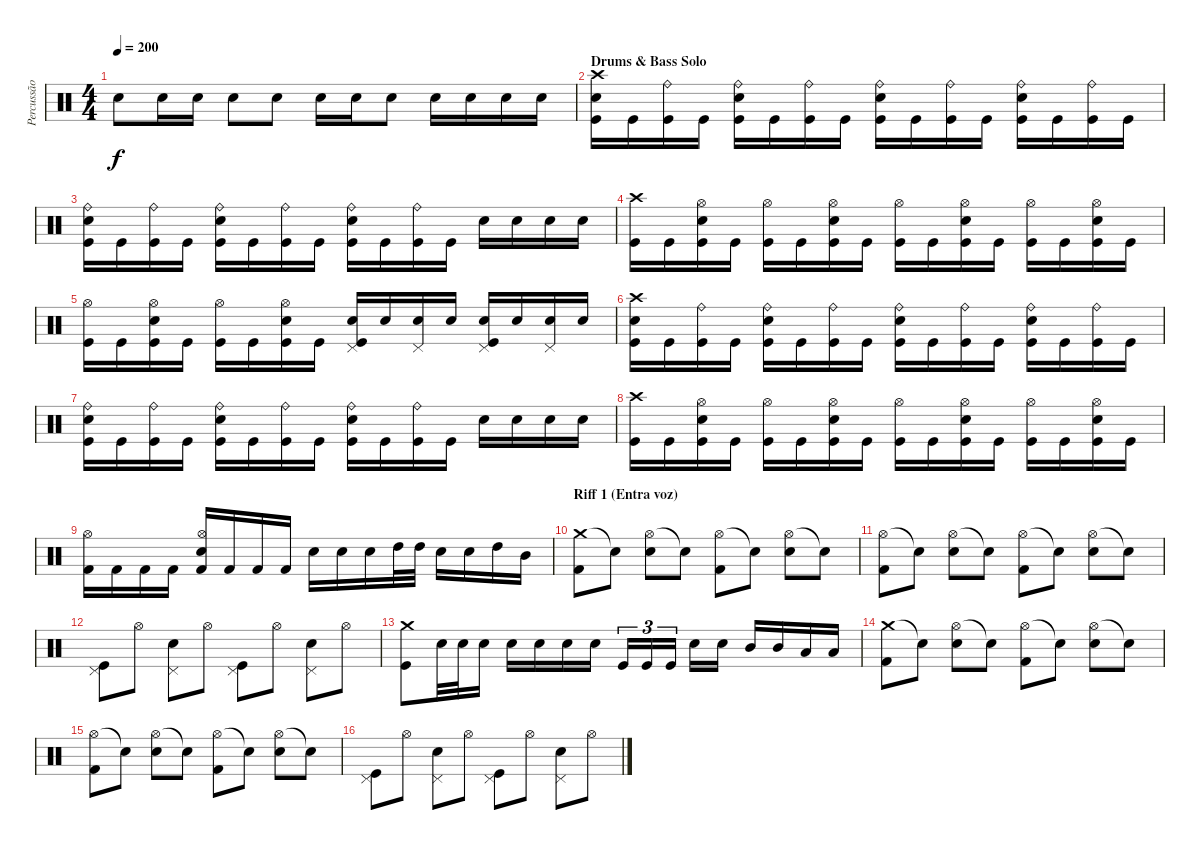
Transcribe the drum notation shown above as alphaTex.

\track ("Percussão" "Percussão") {instrument percussion}
\staff {score}
\articulation defaults
\ts (4 4)
\tempo 200
\clef neutral
\ks c "Electric Snare (hit)".8{dy f} "Electric Snare (hit)".16 "Electric Snare (hit)".16 "Electric Snare (hit)".8 "Electric Snare (hit)".8 "Electric Snare (hit)".16 "Electric Snare (hit)".16 "Electric Snare (hit)".8 "Electric Snare (hit)".16 "Electric Snare (hit)".16 "Electric Snare (hit)".16 "Electric Snare (hit)".16
|
\section ("" "Drums & Bass Solo ")
("Crash high (hit)" "Electric Snare (hit)" "Kick (hit)").16 "Kick (hit)".16 ("Ride (bell)" "Kick (hit)").16 "Kick (hit)".16 ("Ride (bell)" "Electric Snare (hit)" "Kick (hit)").16 "Kick (hit)".16 ("Ride (bell)" "Kick (hit)").16 "Kick (hit)".16 ("Ride (bell)" "Electric Snare (hit)" "Kick (hit)").16 "Kick (hit)".16 ("Ride (bell)" "Kick (hit)").16 "Kick (hit)".16 ("Ride (bell)" "Electric Snare (hit)" "Kick (hit)").16 "Kick (hit)".16 ("Ride (bell)" "Kick (hit)").16 "Kick (hit)".16 |
("Ride (bell)" "Electric Snare (hit)" "Kick (hit)").16 "Kick (hit)".16 ("Ride (bell)" "Kick (hit)").16 "Kick (hit)".16 ("Ride (bell)" "Electric Snare (hit)" "Kick (hit)").16 "Kick (hit)".16 ("Ride (bell)" "Kick (hit)").16 "Kick (hit)".16 ("Ride (bell)" "Electric Snare (hit)" "Kick (hit)").16 "Kick (hit)".16 ("Ride (bell)" "Kick (hit)").16 "Kick (hit)".16 "Electric Snare (hit)".16 "Electric Snare (hit)".16 "Electric Snare (hit)".16 "Electric Snare (hit)".16 |
("Crash high (hit)" "Kick (hit)").16 "Kick (hit)".16 ("Hi-Hat (open)" "Electric Snare (hit)" "Kick (hit)").16 "Kick (hit)".16 ("Hi-Hat (open)" "Kick (hit)").16 "Kick (hit)".16 ("Hi-Hat (open)" "Electric Snare (hit)" "Kick (hit)").16 "Kick (hit)".16 ("Hi-Hat (open)" "Kick (hit)").16 "Kick (hit)".16 ("Hi-Hat (open)" "Electric Snare (hit)" "Kick (hit)").16 "Kick (hit)".16 ("Hi-Hat (open)" "Kick (hit)").16 "Kick (hit)".16 ("Hi-Hat (open)" "Electric Snare (hit)" "Kick (hit)").16 "Kick (hit)".16 |
("Hi-Hat (open)" "Kick (hit)").16 "Kick (hit)".16 ("Hi-Hat (open)" "Electric Snare (hit)" "Kick (hit)").16 "Kick (hit)".16 ("Hi-Hat (open)" "Kick (hit)").16 "Kick (hit)".16 ("Hi-Hat (open)" "Electric Snare (hit)" "Kick (hit)").16 "Kick (hit)".16 ("Pedal Hi-Hat (hit)" "Electric Snare (hit)" "Kick (hit)").16 "Electric Snare (hit)".16 ("Pedal Hi-Hat (hit)" "Electric Snare (hit)").16 "Electric Snare (hit)".16 ("Pedal Hi-Hat (hit)" "Electric Snare (hit)" "Kick (hit)").16 "Electric Snare (hit)".16 ("Pedal Hi-Hat (hit)" "Electric Snare (hit)").16 "Electric Snare (hit)".16 |
("Crash high (hit)" "Electric Snare (hit)" "Kick (hit)").16 "Kick (hit)".16 ("Ride (bell)" "Kick (hit)").16 "Kick (hit)".16 ("Ride (bell)" "Electric Snare (hit)" "Kick (hit)").16 "Kick (hit)".16 ("Ride (bell)" "Kick (hit)").16 "Kick (hit)".16 ("Ride (bell)" "Electric Snare (hit)" "Kick (hit)").16 "Kick (hit)".16 ("Ride (bell)" "Kick (hit)").16 "Kick (hit)".16 ("Ride (bell)" "Electric Snare (hit)" "Kick (hit)").16 "Kick (hit)".16 ("Ride (bell)" "Kick (hit)").16 "Kick (hit)".16 |
("Ride (bell)" "Electric Snare (hit)" "Kick (hit)").16 "Kick (hit)".16 ("Ride (bell)" "Kick (hit)").16 "Kick (hit)".16 ("Ride (bell)" "Electric Snare (hit)" "Kick (hit)").16 "Kick (hit)".16 ("Ride (bell)" "Kick (hit)").16 "Kick (hit)".16 ("Ride (bell)" "Electric Snare (hit)" "Kick (hit)").16 "Kick (hit)".16 ("Ride (bell)" "Kick (hit)").16 "Kick (hit)".16 "Electric Snare (hit)".16 "Electric Snare (hit)".16 "Electric Snare (hit)".16 "Electric Snare (hit)".16 |
("Crash high (hit)" "Kick (hit)").16 "Kick (hit)".16 ("Hi-Hat (open)" "Electric Snare (hit)" "Kick (hit)").16 "Kick (hit)".16 ("Hi-Hat (open)" "Kick (hit)").16 "Kick (hit)".16 ("Hi-Hat (open)" "Electric Snare (hit)" "Kick (hit)").16 "Kick (hit)".16 ("Hi-Hat (open)" "Kick (hit)").16 "Kick (hit)".16 ("Hi-Hat (open)" "Electric Snare (hit)" "Kick (hit)").16 "Kick (hit)".16 ("Hi-Hat (open)" "Kick (hit)").16 "Kick (hit)".16 ("Hi-Hat (open)" "Electric Snare (hit)" "Kick (hit)").16 "Kick (hit)".16 |
("Hi-Hat (open)" "Kick (hit) 2").16 "Kick (hit) 2".16 "Kick (hit) 2".16 "Kick (hit) 2".16 ("Hi-Hat (open)" "Electric Snare (hit)" "Kick (hit) 2").16 "Kick (hit) 2".16 "Kick (hit) 2".16 "Kick (hit) 2".16 "Electric Snare (hit)".16 "Electric Snare (hit)".16 "Electric Snare (hit)".16 "High Tom (hit)".32 "High Tom (hit)".32 "Electric Snare (hit)".16 "Electric Snare (hit)".16 "High Tom (hit)".16 "Mid Tom (hit)".16 |
\section ("" "Riff 1 (Entra voz)")
("Crash medium (hit)" "Kick (hit) 2").8 "Snare (hit)"{t}.8 ("Hi-Hat (open)" "Electric Snare (hit)").8 "Snare (hit)"{t}.8 ("Hi-Hat (open)" "Kick (hit) 2").8 "Snare (hit)"{t}.8 ("Hi-Hat (open)" "Electric Snare (hit)").8 "Snare (hit)"{t}.8 |
("Hi-Hat (open)" "Kick (hit) 2").8 "Snare (hit)"{t}.8 ("Hi-Hat (open)" "Electric Snare (hit)").8 "Snare (hit)"{t}.8 ("Hi-Hat (open)" "Kick (hit) 2").8 "Snare (hit)"{t}.8 ("Hi-Hat (open)" "Electric Snare (hit)").8 "Snare (hit)"{t}.8 |
("Pedal Hi-Hat (hit)" "Kick (hit)").8 "Hi-Hat (open)".8 ("Pedal Hi-Hat (hit)" "Electric Snare (hit)").8 "Hi-Hat (open)".8 ("Pedal Hi-Hat (hit)" "Kick (hit)").8 "Hi-Hat (open)".8 ("Pedal Hi-Hat (hit)" "Electric Snare (hit)").8 "Hi-Hat (open)".8 |
("Crash medium (hit)" "Kick (hit)").8 "Electric Snare (hit)".32 "Electric Snare (hit)".32 "Electric Snare (hit)".16 "Electric Snare (hit)".16 "Electric Snare (hit)".16 "Electric Snare (hit)".16 "Electric Snare (hit)".16 "Kick (hit)".16{tu (3 2)} "Kick (hit)".16{tu (3 2)} "Kick (hit)".16{tu (3 2)} "Electric Snare (hit)".16 "Electric Snare (hit)".16 "Mid Tom (hit)".16 "Mid Tom (hit)".16 "Low Tom (hit)".16 "Low Tom (hit)".16 |
("Crash medium (hit)" "Kick (hit) 2").8 "Snare (hit)"{t}.8 ("Hi-Hat (open)" "Electric Snare (hit)").8 "Snare (hit)"{t}.8 ("Hi-Hat (open)" "Kick (hit) 2").8 "Snare (hit)"{t}.8 ("Hi-Hat (open)" "Electric Snare (hit)").8 "Snare (hit)"{t}.8 |
("Hi-Hat (open)" "Kick (hit) 2").8 "Snare (hit)"{t}.8 ("Hi-Hat (open)" "Electric Snare (hit)").8 "Snare (hit)"{t}.8 ("Hi-Hat (open)" "Kick (hit) 2").8 "Snare (hit)"{t}.8 ("Hi-Hat (open)" "Electric Snare (hit)").8 "Snare (hit)"{t}.8 |
("Pedal Hi-Hat (hit)" "Kick (hit)").8 "Hi-Hat (open)".8 ("Pedal Hi-Hat (hit)" "Electric Snare (hit)").8 "Hi-Hat (open)".8 ("Pedal Hi-Hat (hit)" "Kick (hit)").8 "Hi-Hat (open)".8 ("Pedal Hi-Hat (hit)" "Electric Snare (hit)").8 "Hi-Hat (open)".8
